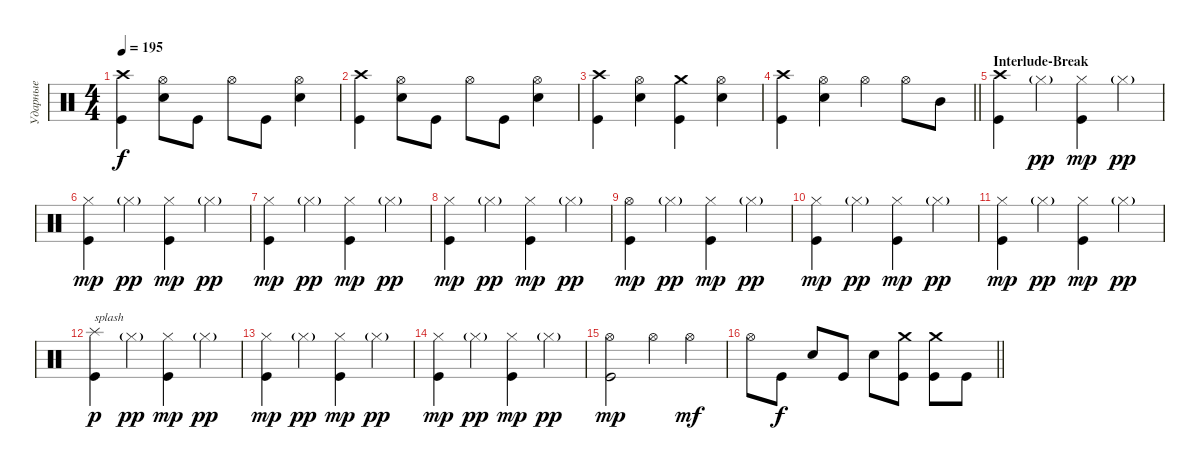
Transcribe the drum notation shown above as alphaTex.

\track ("Ударные" "Ударные") {instrument percussion}
\staff {score}
\articulation defaults
\ts (4 4)
\tempo 195
\clef neutral
\ks c
("Kick (hit)" "Crash high (hit)").4{dy f} ("Snare (hit) 2" "Hi-Hat (open)").8 "Kick (hit)".8 "Hi-Hat (open)".8 "Kick (hit)".8 ("Snare (hit) 2" "Hi-Hat (open)").4 |
("Kick (hit)" "Crash high (hit)").4 ("Snare (hit) 2" "Hi-Hat (open)").8 "Kick (hit)".8 "Hi-Hat (open)".8 "Kick (hit)".8 ("Snare (hit) 2" "Hi-Hat (open)").4 |
("Kick (hit)" "Crash high (hit)").4 ("Snare (hit) 2" "Hi-Hat (open)").4 ("Kick (hit)" "Crash medium (hit)").4 ("Snare (hit) 2" "Hi-Hat (open)").4 |
\barLineRight lightlight
("Kick (hit)" "Crash high (hit)").4 ("Snare (hit) 2" "Hi-Hat (open)").4 "Hi-Hat (open)".4 "Hi-Hat (open)".8 "Mid Tom (hit)".8 |
\section ("" "Interlude-Break")
("Kick (hit)" "Crash high (hit)").4 "Hi-Hat (closed)"{g}.4{dy pp} ("Kick (hit)" "Hi-Hat (closed)").4{dy mp} "Hi-Hat (closed)"{g}.4{dy pp} |
("Hi-Hat (closed)" "Kick (hit)").4{dy mp} "Hi-Hat (closed)"{g}.4{dy pp} ("Hi-Hat (closed)" "Kick (hit)").4{dy mp} "Hi-Hat (closed)"{g}.4{dy pp} |
("Hi-Hat (closed)" "Kick (hit)").4{dy mp} "Hi-Hat (closed)"{g}.4{dy pp} ("Hi-Hat (closed)" "Kick (hit)").4{dy mp} "Hi-Hat (closed)"{g}.4{dy pp} |
("Hi-Hat (closed)" "Kick (hit)").4{dy mp} "Hi-Hat (closed)"{g}.4{dy pp} ("Hi-Hat (closed)" "Kick (hit)").4{dy mp} "Hi-Hat (closed)"{g}.4{dy pp} |
("Hi-Hat (open)" "Kick (hit)").4{dy mp} "Hi-Hat (closed)"{g}.4{dy pp} ("Hi-Hat (closed)" "Kick (hit)").4{dy mp} "Hi-Hat (closed)"{g}.4{dy pp} |
("Hi-Hat (closed)" "Kick (hit)").4{dy mp} "Hi-Hat (closed)"{g}.4{dy pp} ("Hi-Hat (closed)" "Kick (hit)").4{dy mp} "Hi-Hat (closed)"{g}.4{dy pp} |
("Hi-Hat (closed)" "Kick (hit)").4{dy mp} "Hi-Hat (closed)"{g}.4{dy pp} ("Hi-Hat (closed)" "Kick (hit)").4{dy mp} "Hi-Hat (closed)"{g}.4{dy pp} |
("Splash (hit)" "Kick (hit)").4{txt "splash" dy p} "Hi-Hat (closed)"{g}.4{dy pp} ("Hi-Hat (closed)" "Kick (hit)").4{dy mp} "Hi-Hat (closed)"{g}.4{dy pp} |
("Hi-Hat (closed)" "Kick (hit)").4{dy mp} "Hi-Hat (closed)"{g}.4{dy pp} ("Hi-Hat (closed)" "Kick (hit)").4{dy mp} "Hi-Hat (closed)"{g}.4{dy pp} |
("Hi-Hat (closed)" "Kick (hit)").4{dy mp} "Hi-Hat (closed)"{g}.4{dy pp} ("Hi-Hat (closed)" "Kick (hit)").4{dy mp} "Hi-Hat (closed)"{g}.4{dy pp} |
("Kick (hit)" "Hi-Hat (open)").2{dy mp} "Hi-Hat (open)".4 "Hi-Hat (open)".4{dy mf} |
\barLineRight lightlight "Hi-Hat (open)".8 "Kick (hit)".8{dy f} "Snare (hit) 2".8 "Kick (hit)".8 "Snare (hit) 2".8
("Kick (hit)" "Crash medium (hit)").8 ("Kick (hit)" "Crash medium (hit)").8 "Kick (hit)".8
